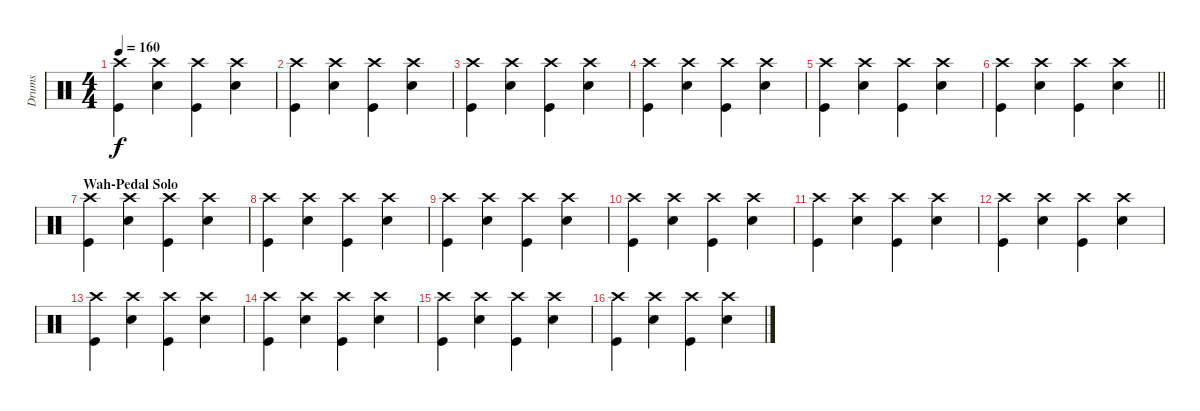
\track ("Drums" "Drums") {instrument percussion}
\staff {score}
\articulation defaults
\ts (4 4)
\tempo 160
\clef neutral
\ks c
("Crash high (hit)" "Kick (hit)").4{dy f} ("Crash high (hit)" "Snare (hit) 2").4 ("Crash high (hit)" "Kick (hit)").4 ("Crash high (hit)" "Snare (hit) 2").4 |
("Crash high (hit)" "Kick (hit)").4 ("Crash high (hit)" "Snare (hit) 2").4 ("Crash high (hit)" "Kick (hit)").4 ("Crash high (hit)" "Snare (hit) 2").4 |
("Crash high (hit)" "Kick (hit)").4 ("Crash high (hit)" "Snare (hit) 2").4 ("Crash high (hit)" "Kick (hit)").4 ("Crash high (hit)" "Snare (hit) 2").4 |
("Crash high (hit)" "Kick (hit)").4 ("Crash high (hit)" "Snare (hit) 2").4 ("Crash high (hit)" "Kick (hit)").4 ("Crash high (hit)" "Snare (hit) 2").4 |
("Crash high (hit)" "Kick (hit)").4 ("Crash high (hit)" "Snare (hit) 2").4 ("Crash high (hit)" "Kick (hit)").4 ("Crash high (hit)" "Snare (hit) 2").4 |
\barLineRight lightlight
("Crash high (hit)" "Kick (hit)").4 ("Crash high (hit)" "Snare (hit) 2").4 ("Crash high (hit)" "Kick (hit)").4 ("Crash high (hit)" "Snare (hit) 2").4 |
\section ("" "Wah-Pedal Solo")
("Crash high (hit)" "Kick (hit)").4 ("Crash high (hit)" "Snare (hit) 2").4 ("Crash high (hit)" "Kick (hit)").4 ("Crash high (hit)" "Snare (hit) 2").4 |
("Crash high (hit)" "Kick (hit)").4 ("Crash high (hit)" "Snare (hit) 2").4 ("Crash high (hit)" "Kick (hit)").4 ("Crash high (hit)" "Snare (hit) 2").4 |
("Crash high (hit)" "Kick (hit)").4 ("Crash high (hit)" "Snare (hit) 2").4 ("Crash high (hit)" "Kick (hit)").4 ("Crash high (hit)" "Snare (hit) 2").4 |
("Crash high (hit)" "Kick (hit)").4 ("Crash high (hit)" "Snare (hit) 2").4 ("Crash high (hit)" "Kick (hit)").4 ("Crash high (hit)" "Snare (hit) 2").4 |
("Crash high (hit)" "Kick (hit)").4 ("Crash high (hit)" "Snare (hit) 2").4 ("Crash high (hit)" "Kick (hit)").4 ("Crash high (hit)" "Snare (hit) 2").4 |
("Crash high (hit)" "Kick (hit)").4 ("Crash high (hit)" "Snare (hit) 2").4 ("Crash high (hit)" "Kick (hit)").4 ("Crash high (hit)" "Snare (hit) 2").4 |
("Crash high (hit)" "Kick (hit)").4 ("Crash high (hit)" "Snare (hit) 2").4 ("Crash high (hit)" "Kick (hit)").4 ("Crash high (hit)" "Snare (hit) 2").4 |
("Crash high (hit)" "Kick (hit)").4 ("Crash high (hit)" "Snare (hit) 2").4 ("Crash high (hit)" "Kick (hit)").4 ("Crash high (hit)" "Snare (hit) 2").4 |
("Crash high (hit)" "Kick (hit)").4 ("Crash high (hit)" "Snare (hit) 2").4 ("Crash high (hit)" "Kick (hit)").4 ("Crash high (hit)" "Snare (hit) 2").4 |
("Crash high (hit)" "Kick (hit)").4 ("Crash high (hit)" "Snare (hit) 2").4 ("Crash high (hit)" "Kick (hit)").4 ("Crash high (hit)" "Snare (hit) 2").4
